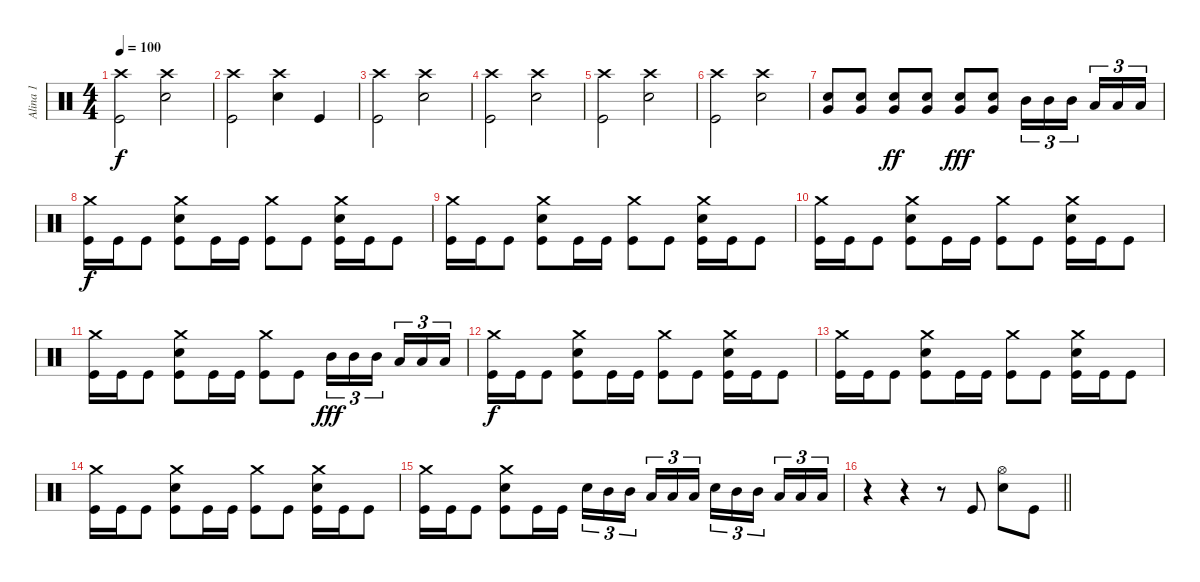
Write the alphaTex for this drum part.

\track ("Alina 1" "Alina 1") {mute instrument percussion}
\staff {score}
\articulation defaults
\ts (4 4)
\tempo 100
\clef neutral
\ks c
("Kick (hit)" "Crash high (hit)").2{dy f} ("Snare (hit) 2" "Crash high (hit)").2 |
("Kick (hit)" "Crash high (hit)").2 ("Snare (hit) 2" "Crash high (hit)").4 "Kick (hit)".4 |
("Kick (hit)" "Crash high (hit)").2 ("Snare (hit) 2" "Crash high (hit)").2 |
("Kick (hit)" "Crash high (hit)").2 ("Snare (hit) 2" "Crash high (hit)").2 |
("Kick (hit)" "Crash high (hit)").2 ("Snare (hit) 2" "Crash high (hit)").2 |
("Kick (hit)" "Crash high (hit)").2 ("Snare (hit) 2" "Crash high (hit)").2 |
("Snare (hit) 2" "Very Low Tom (hit)").8 ("Snare (hit) 2" "Very Low Tom (hit)").8 ("Snare (hit) 2" "Very Low Tom (hit)").8{dy ff} ("Snare (hit) 2" "Very Low Tom (hit)").8 ("Snare (hit) 2" "Very Low Tom (hit)").8{dy fff} ("Snare (hit) 2" "Very Low Tom (hit)").8 "Mid Tom (hit)".16{tu (3 2)} "Mid Tom (hit)".16{tu (3 2)} "Mid Tom (hit)".16{tu (3 2)} "Low Tom (hit)".16{tu (3 2)} "Low Tom (hit)".16{tu (3 2)} "Low Tom (hit)".16{tu (3 2)} |
("Kick (hit)" "Crash medium (hit)").16{dy f} "Kick (hit)".16 "Kick (hit)".8 ("Kick (hit)" "Crash medium (hit)" "Snare (hit) 2").8 "Kick (hit)".16 "Kick (hit)".16 ("Kick (hit)" "Crash medium (hit)").8 "Kick (hit)".8 ("Kick (hit)" "Crash medium (hit)" "Snare (hit) 2").16 "Kick (hit)".16 "Kick (hit)".8 |
("Kick (hit)" "Crash medium (hit)").16 "Kick (hit)".16 "Kick (hit)".8 ("Kick (hit)" "Crash medium (hit)" "Snare (hit) 2").8 "Kick (hit)".16 "Kick (hit)".16 ("Kick (hit)" "Crash medium (hit)").8 "Kick (hit)".8 ("Kick (hit)" "Crash medium (hit)" "Snare (hit) 2").16 "Kick (hit)".16 "Kick (hit)".8 |
("Kick (hit)" "Crash medium (hit)").16 "Kick (hit)".16 "Kick (hit)".8 ("Kick (hit)" "Crash medium (hit)" "Snare (hit) 2").8 "Kick (hit)".16 "Kick (hit)".16 ("Kick (hit)" "Crash medium (hit)").8 "Kick (hit)".8 ("Kick (hit)" "Crash medium (hit)" "Snare (hit) 2").16 "Kick (hit)".16 "Kick (hit)".8 |
("Kick (hit)" "Crash medium (hit)").16 "Kick (hit)".16 "Kick (hit)".8 ("Kick (hit)" "Crash medium (hit)" "Snare (hit) 2").8 "Kick (hit)".16 "Kick (hit)".16 ("Kick (hit)" "Crash medium (hit)").8 "Kick (hit)".8 "Mid Tom (hit)".16{tu (3 2) dy fff} "Mid Tom (hit)".16{tu (3 2)} "Mid Tom (hit)".16{tu (3 2)} "Low Tom (hit)".16{tu (3 2)} "Low Tom (hit)".16{tu (3 2)} "Low Tom (hit)".16{tu (3 2)} |
("Kick (hit)" "Crash medium (hit)").16{dy f} "Kick (hit)".16 "Kick (hit)".8 ("Kick (hit)" "Crash medium (hit)" "Snare (hit) 2").8 "Kick (hit)".16 "Kick (hit)".16 ("Kick (hit)" "Crash medium (hit)").8 "Kick (hit)".8 ("Kick (hit)" "Crash medium (hit)" "Snare (hit) 2").16 "Kick (hit)".16 "Kick (hit)".8 |
("Kick (hit)" "Crash medium (hit)").16 "Kick (hit)".16 "Kick (hit)".8 ("Kick (hit)" "Crash medium (hit)" "Snare (hit) 2").8 "Kick (hit)".16 "Kick (hit)".16 ("Kick (hit)" "Crash medium (hit)").8 "Kick (hit)".8 ("Kick (hit)" "Crash medium (hit)" "Snare (hit) 2").16 "Kick (hit)".16 "Kick (hit)".8 |
("Kick (hit)" "Crash medium (hit)").16 "Kick (hit)".16 "Kick (hit)".8 ("Kick (hit)" "Crash medium (hit)" "Snare (hit) 2").8 "Kick (hit)".16 "Kick (hit)".16 ("Kick (hit)" "Crash medium (hit)").8 "Kick (hit)".8 ("Kick (hit)" "Crash medium (hit)" "Snare (hit) 2").16 "Kick (hit)".16 "Kick (hit)".8 |
("Kick (hit)" "Crash medium (hit)").16 "Kick (hit)".16 "Kick (hit)".8 ("Kick (hit)" "Crash medium (hit)" "Snare (hit) 2").8 "Kick (hit)".16 "Kick (hit)".16 "Snare (hit) 2".16{tu (3 2)} "Mid Tom (hit)".16{tu (3 2)} "Mid Tom (hit)".16{tu (3 2)} "Low Tom (hit)".16{tu (3 2)} "Low Tom (hit)".16{tu (3 2)} "Low Tom (hit)".16{tu (3 2)} "Snare (hit) 2".16{tu (3 2)} "Mid Tom (hit)".16{tu (3 2)} "Mid Tom (hit)".16{tu (3 2)} "Low Tom (hit)".16{tu (3 2)} "Low Tom (hit)".16{tu (3 2)} "Low Tom (hit)".16{tu (3 2)} |
\barLineRight lightlight
r.4 r.4 r.8 "Kick (hit)".8 ("Hi-Hat (open)" "Snare (hit) 2").8 "Kick (hit)".8
